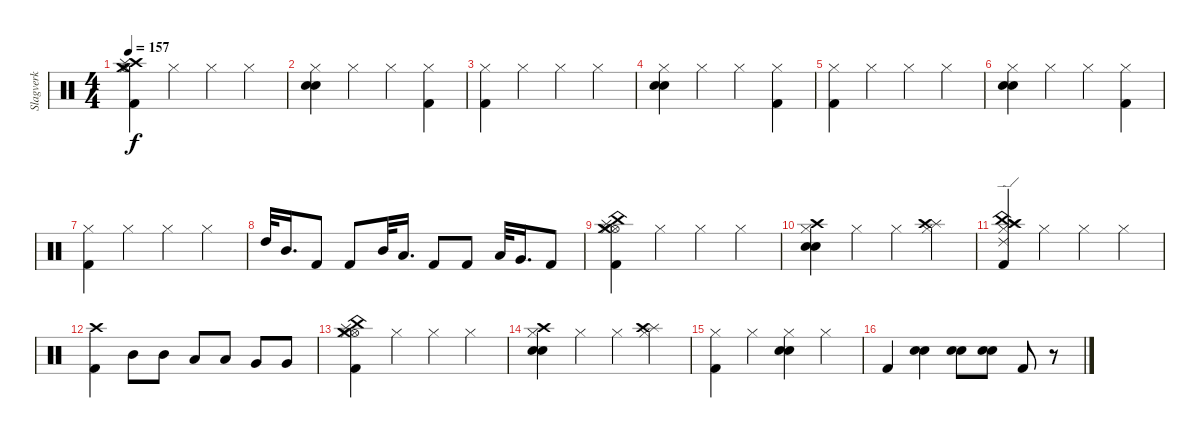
\track ("Slagverk" "Slagverk") {instrument percussion}
\staff {score}
\articulation defaults
\ts (4 4)
\tempo 157
\clef neutral
\ks c
("Kick (hit) 2" "Hi-Hat (closed)" "Crash high (hit)" "Hi-Hat (open)" "Crash medium (hit)" "Splash (hit)").4{dy f} "Hi-Hat (closed)".4 "Hi-Hat (closed)".4 "Hi-Hat (closed)".4 |
("Electric Snare (hit)" "Snare (hit) 2" "Hi-Hat (closed)").4 "Hi-Hat (closed)".4 "Hi-Hat (closed)".4 ("Kick (hit) 2" "Hi-Hat (closed)").4 |
("Kick (hit) 2" "Hi-Hat (closed)").4 "Hi-Hat (closed)".4 "Hi-Hat (closed)".4 "Hi-Hat (closed)".4 |
("Electric Snare (hit)" "Snare (hit) 2" "Hi-Hat (closed)").4 "Hi-Hat (closed)".4 "Hi-Hat (closed)".4 ("Kick (hit) 2" "Hi-Hat (closed)").4 |
("Kick (hit) 2" "Hi-Hat (closed)").4 "Hi-Hat (closed)".4 "Hi-Hat (closed)".4 "Hi-Hat (closed)".4 |
("Electric Snare (hit)" "Snare (hit) 2" "Hi-Hat (closed)").4 "Hi-Hat (closed)".4 "Hi-Hat (closed)".4 ("Kick (hit) 2" "Hi-Hat (closed)").4 |
("Kick (hit) 2" "Hi-Hat (closed)").4 "Hi-Hat (closed)".4 "Hi-Hat (closed)".4 "Hi-Hat (closed)".4 |
"High Tom (hit)".32 "Mid Tom (hit)".16{d} "Kick (hit) 2".8 "Kick (hit) 2".8 "Mid Tom (hit)".32 "Low Tom (hit)".16{d} "Kick (hit) 2".8 "Kick (hit) 2".8 "Low Tom (hit)".32 "Very Low Tom (hit)".16{d} "Kick (hit) 2".8 |
("Hi-Hat (open)" "Crash medium (hit)" "Splash (hit)" "China (hit)" "Kick (hit) 2" "Hi-Hat (closed)").4 "Hi-Hat (closed)".4 "Hi-Hat (closed)".4 "Hi-Hat (closed)".4 |
("Crash high (hit)" "Electric Snare (hit)" "Snare (hit) 2" "Hi-Hat (closed)").4 "Hi-Hat (closed)".4 "Hi-Hat (closed)".4 ("Splash (hit)" "Crash high (hit)" "Hi-Hat (closed)").4 |
("Crash high (hit)" "China (hit)" "Ride (edge) 2" "Splash (hit)" "Kick (hit) 2" "Hi-Hat (closed)").4 "Hi-Hat (closed)".4 "Hi-Hat (closed)".4 "Hi-Hat (closed)".4 |
("Crash high (hit)" "Kick (hit) 2").4 "Mid Tom (hit)".8 "Mid Tom (hit)".8 "Low Tom (hit)".8 "Low Tom (hit)".8 "Very Low Tom (hit)".8 "Very Low Tom (hit)".8 |
("Hi-Hat (open)" "Crash medium (hit)" "Splash (hit)" "China (hit)" "Kick (hit) 2" "Hi-Hat (closed)").4 "Hi-Hat (closed)".4 "Hi-Hat (closed)".4 "Hi-Hat (closed)".4 |
("Crash high (hit)" "Electric Snare (hit)" "Snare (hit) 2" "Hi-Hat (closed)").4 "Hi-Hat (closed)".4 "Hi-Hat (closed)".4 ("Splash (hit)" "Crash high (hit)" "Hi-Hat (closed)").4 |
("Hi-Hat (closed)" "Kick (hit) 2").4 "Hi-Hat (closed)".4 ("Electric Snare (hit)" "Snare (hit) 2" "Hi-Hat (closed)").4 "Hi-Hat (closed)".4 |
"Kick (hit) 2".4 ("Electric Snare (hit)" "Snare (hit) 2").4 ("Electric Snare (hit)" "Snare (hit) 2").8 ("Snare (hit) 2" "Electric Snare (hit)").8 "Kick (hit) 2".8 r.8
